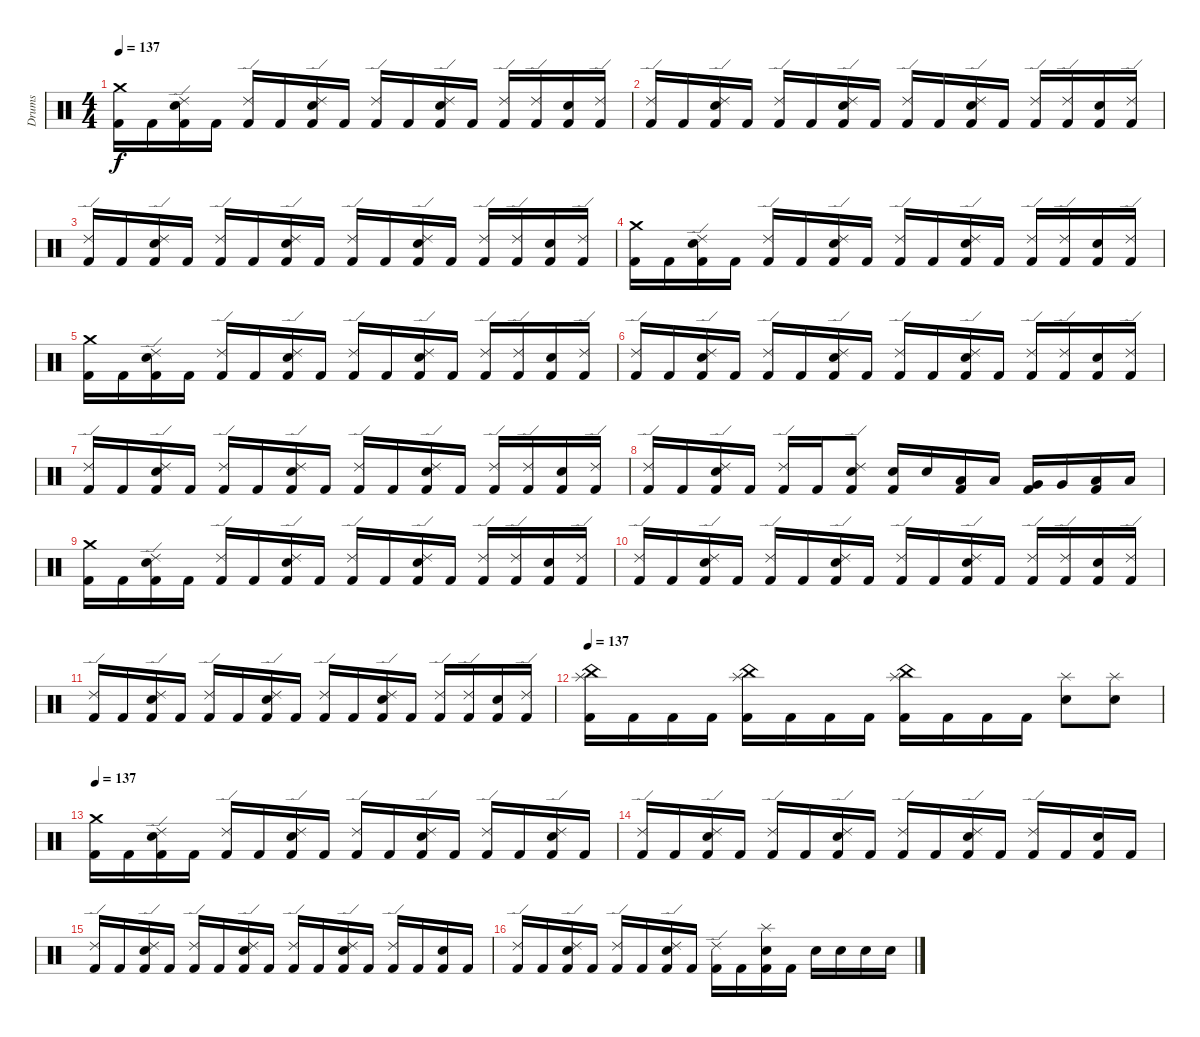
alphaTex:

\track ("Drums" "Drums") {instrument percussion}
\staff {score}
\articulation defaults
\ts (4 4)
\tempo 137
\clef neutral
\ks c
("Crash medium (hit)" "Kick (hit) 2").16{dy f} "Kick (hit) 2".16 ("Ride (edge) 2" "Snare (hit) 2" "Kick (hit) 2").16 "Kick (hit) 2".16 ("Ride (edge) 2" "Kick (hit) 2").16 "Kick (hit) 2".16 ("Ride (edge) 2" "Snare (hit) 2" "Kick (hit) 2").16 "Kick (hit) 2".16 ("Ride (edge) 2" "Kick (hit) 2").16 "Kick (hit) 2".16 ("Ride (edge) 2" "Snare (hit) 2" "Kick (hit) 2").16 "Kick (hit) 2".16 ("Ride (edge) 2" "Kick (hit) 2").16 ("Ride (edge) 2" "Kick (hit) 2").16 ("Snare (hit) 2" "Kick (hit) 2").16 ("Ride (edge) 2" "Kick (hit) 2").16 |
("Ride (edge) 2" "Kick (hit) 2").16 "Kick (hit) 2".16 ("Ride (edge) 2" "Snare (hit) 2" "Kick (hit) 2").16 "Kick (hit) 2".16 ("Ride (edge) 2" "Kick (hit) 2").16 "Kick (hit) 2".16 ("Ride (edge) 2" "Snare (hit) 2" "Kick (hit) 2").16 "Kick (hit) 2".16 ("Ride (edge) 2" "Kick (hit) 2").16 "Kick (hit) 2".16 ("Ride (edge) 2" "Snare (hit) 2" "Kick (hit) 2").16 "Kick (hit) 2".16 ("Ride (edge) 2" "Kick (hit) 2").16 ("Ride (edge) 2" "Kick (hit) 2").16 ("Snare (hit) 2" "Kick (hit) 2").16 ("Ride (edge) 2" "Kick (hit) 2").16 |
("Ride (edge) 2" "Kick (hit) 2").16 "Kick (hit) 2".16 ("Ride (edge) 2" "Snare (hit) 2" "Kick (hit) 2").16 "Kick (hit) 2".16 ("Ride (edge) 2" "Kick (hit) 2").16 "Kick (hit) 2".16 ("Ride (edge) 2" "Snare (hit) 2" "Kick (hit) 2").16 "Kick (hit) 2".16 ("Ride (edge) 2" "Kick (hit) 2").16 "Kick (hit) 2".16 ("Ride (edge) 2" "Snare (hit) 2" "Kick (hit) 2").16 "Kick (hit) 2".16 ("Ride (edge) 2" "Kick (hit) 2").16 ("Ride (edge) 2" "Kick (hit) 2").16 ("Snare (hit) 2" "Kick (hit) 2").16 ("Ride (edge) 2" "Kick (hit) 2").16 |
("Crash medium (hit)" "Kick (hit) 2").16 "Kick (hit) 2".16 ("Ride (edge) 2" "Snare (hit) 2" "Kick (hit) 2").16 "Kick (hit) 2".16 ("Ride (edge) 2" "Kick (hit) 2").16 "Kick (hit) 2".16 ("Ride (edge) 2" "Snare (hit) 2" "Kick (hit) 2").16 "Kick (hit) 2".16 ("Ride (edge) 2" "Kick (hit) 2").16 "Kick (hit) 2".16 ("Ride (edge) 2" "Snare (hit) 2" "Kick (hit) 2").16 "Kick (hit) 2".16 ("Ride (edge) 2" "Kick (hit) 2").16 ("Ride (edge) 2" "Kick (hit) 2").16 ("Snare (hit) 2" "Kick (hit) 2").16 ("Ride (edge) 2" "Kick (hit) 2").16 |
("Crash medium (hit)" "Kick (hit) 2").16 "Kick (hit) 2".16 ("Ride (edge) 2" "Snare (hit) 2" "Kick (hit) 2").16 "Kick (hit) 2".16 ("Ride (edge) 2" "Kick (hit) 2").16 "Kick (hit) 2".16 ("Ride (edge) 2" "Snare (hit) 2" "Kick (hit) 2").16 "Kick (hit) 2".16 ("Ride (edge) 2" "Kick (hit) 2").16 "Kick (hit) 2".16 ("Ride (edge) 2" "Snare (hit) 2" "Kick (hit) 2").16 "Kick (hit) 2".16 ("Ride (edge) 2" "Kick (hit) 2").16 ("Ride (edge) 2" "Kick (hit) 2").16 ("Snare (hit) 2" "Kick (hit) 2").16 ("Ride (edge) 2" "Kick (hit) 2").16 |
("Ride (edge) 2" "Kick (hit) 2").16 "Kick (hit) 2".16 ("Ride (edge) 2" "Snare (hit) 2" "Kick (hit) 2").16 "Kick (hit) 2".16 ("Ride (edge) 2" "Kick (hit) 2").16 "Kick (hit) 2".16 ("Ride (edge) 2" "Snare (hit) 2" "Kick (hit) 2").16 "Kick (hit) 2".16 ("Ride (edge) 2" "Kick (hit) 2").16 "Kick (hit) 2".16 ("Ride (edge) 2" "Snare (hit) 2" "Kick (hit) 2").16 "Kick (hit) 2".16 ("Ride (edge) 2" "Kick (hit) 2").16 ("Ride (edge) 2" "Kick (hit) 2").16 ("Snare (hit) 2" "Kick (hit) 2").16 ("Ride (edge) 2" "Kick (hit) 2").16 |
("Ride (edge) 2" "Kick (hit) 2").16 "Kick (hit) 2".16 ("Ride (edge) 2" "Snare (hit) 2" "Kick (hit) 2").16 "Kick (hit) 2".16 ("Ride (edge) 2" "Kick (hit) 2").16 "Kick (hit) 2".16 ("Ride (edge) 2" "Snare (hit) 2" "Kick (hit) 2").16 "Kick (hit) 2".16 ("Ride (edge) 2" "Kick (hit) 2").16 "Kick (hit) 2".16 ("Ride (edge) 2" "Snare (hit) 2" "Kick (hit) 2").16 "Kick (hit) 2".16 ("Ride (edge) 2" "Kick (hit) 2").16 ("Ride (edge) 2" "Kick (hit) 2").16 ("Snare (hit) 2" "Kick (hit) 2").16 ("Ride (edge) 2" "Kick (hit) 2").16 |
("Ride (edge) 2" "Kick (hit) 2").16 "Kick (hit) 2".16 ("Ride (edge) 2" "Snare (hit) 2" "Kick (hit) 2").16 "Kick (hit) 2".16 ("Ride (edge) 2" "Kick (hit) 2").16 "Kick (hit) 2".16 ("Ride (edge) 2" "Snare (hit) 2" "Kick (hit) 2").8 ("Snare (hit) 2" "Kick (hit) 2").16 "Snare (hit) 2".16 ("Low Tom (hit)" "Kick (hit) 2").16 "Low Tom (hit)".16 ("Very Low Tom (hit)" "Kick (hit) 2").16 "Very Low Tom (hit)".16 ("Low Floor Tom (hit)" "Kick (hit) 2").16 "Low Floor Tom (hit)".16 |
("Crash medium (hit)" "Kick (hit) 2").16 "Kick (hit) 2".16 ("Ride (edge) 2" "Snare (hit) 2" "Kick (hit) 2").16 "Kick (hit) 2".16 ("Ride (edge) 2" "Kick (hit) 2").16 "Kick (hit) 2".16 ("Ride (edge) 2" "Snare (hit) 2" "Kick (hit) 2").16 "Kick (hit) 2".16 ("Ride (edge) 2" "Kick (hit) 2").16 "Kick (hit) 2".16 ("Ride (edge) 2" "Snare (hit) 2" "Kick (hit) 2").16 "Kick (hit) 2".16 ("Ride (edge) 2" "Kick (hit) 2").16 ("Ride (edge) 2" "Kick (hit) 2").16 ("Snare (hit) 2" "Kick (hit) 2").16 ("Ride (edge) 2" "Kick (hit) 2").16 |
("Ride (edge) 2" "Kick (hit) 2").16 "Kick (hit) 2".16 ("Ride (edge) 2" "Snare (hit) 2" "Kick (hit) 2").16 "Kick (hit) 2".16 ("Ride (edge) 2" "Kick (hit) 2").16 "Kick (hit) 2".16 ("Ride (edge) 2" "Snare (hit) 2" "Kick (hit) 2").16 "Kick (hit) 2".16 ("Ride (edge) 2" "Kick (hit) 2").16 "Kick (hit) 2".16 ("Ride (edge) 2" "Snare (hit) 2" "Kick (hit) 2").16 "Kick (hit) 2".16 ("Ride (edge) 2" "Kick (hit) 2").16 ("Ride (edge) 2" "Kick (hit) 2").16 ("Snare (hit) 2" "Kick (hit) 2").16 ("Ride (edge) 2" "Kick (hit) 2").16 |
("Ride (edge) 2" "Kick (hit) 2").16 "Kick (hit) 2".16 ("Ride (edge) 2" "Snare (hit) 2" "Kick (hit) 2").16 "Kick (hit) 2".16 ("Ride (edge) 2" "Kick (hit) 2").16 "Kick (hit) 2".16 ("Ride (edge) 2" "Snare (hit) 2" "Kick (hit) 2").16 "Kick (hit) 2".16 ("Ride (edge) 2" "Kick (hit) 2").16 "Kick (hit) 2".16 ("Ride (edge) 2" "Snare (hit) 2" "Kick (hit) 2").16 "Kick (hit) 2".16 ("Ride (edge) 2" "Kick (hit) 2").16 ("Ride (edge) 2" "Kick (hit) 2").16 ("Snare (hit) 2" "Kick (hit) 2").16 ("Ride (edge) 2" "Kick (hit) 2").16 |
\tempo 137
("China (hit)" "Splash (hit)" "Kick (hit) 2").16 "Kick (hit) 2".16 "Kick (hit) 2".16 "Kick (hit) 2".16 ("China (hit)" "Splash (hit)" "Kick (hit) 2").16 "Kick (hit) 2".16 "Kick (hit) 2".16 "Kick (hit) 2".16 ("China (hit)" "Splash (hit)" "Kick (hit) 2").16 "Kick (hit) 2".16 "Kick (hit) 2".16 "Kick (hit) 2".16 ("Splash (hit)" "Snare (hit) 2").8 ("Splash (hit)" "Snare (hit) 2").8 |
\tempo 137
("Crash medium (hit)" "Kick (hit) 2").16 "Kick (hit) 2".16 ("Ride (edge) 2" "Snare (hit) 2" "Kick (hit) 2").16 "Kick (hit) 2".16 ("Ride (edge) 2" "Kick (hit) 2").16 "Kick (hit) 2".16 ("Ride (edge) 2" "Snare (hit) 2" "Kick (hit) 2").16 "Kick (hit) 2".16 ("Ride (edge) 2" "Kick (hit) 2").16 "Kick (hit) 2".16 ("Ride (edge) 2" "Snare (hit) 2" "Kick (hit) 2").16 "Kick (hit) 2".16 ("Ride (edge) 2" "Kick (hit) 2").16 "Kick (hit) 2".16 ("Ride (edge) 2" "Snare (hit) 2" "Kick (hit) 2").16 "Kick (hit) 2".16 |
("Ride (edge) 2" "Kick (hit) 2").16 "Kick (hit) 2".16 ("Ride (edge) 2" "Snare (hit) 2" "Kick (hit) 2").16 "Kick (hit) 2".16 ("Ride (edge) 2" "Kick (hit) 2").16 "Kick (hit) 2".16 ("Ride (edge) 2" "Snare (hit) 2" "Kick (hit) 2").16 "Kick (hit) 2".16 ("Ride (edge) 2" "Kick (hit) 2").16 "Kick (hit) 2".16 ("Ride (edge) 2" "Snare (hit) 2" "Kick (hit) 2").16 "Kick (hit) 2".16 ("Ride (edge) 2" "Kick (hit) 2").16 "Kick (hit) 2".16 ("Snare (hit) 2" "Kick (hit) 2").16 "Kick (hit) 2".16 |
("Ride (edge) 2" "Kick (hit) 2").16 "Kick (hit) 2".16 ("Ride (edge) 2" "Snare (hit) 2" "Kick (hit) 2").16 "Kick (hit) 2".16 ("Ride (edge) 2" "Kick (hit) 2").16 "Kick (hit) 2".16 ("Ride (edge) 2" "Snare (hit) 2" "Kick (hit) 2").16 "Kick (hit) 2".16 ("Ride (edge) 2" "Kick (hit) 2").16 "Kick (hit) 2".16 ("Ride (edge) 2" "Snare (hit) 2" "Kick (hit) 2").16 "Kick (hit) 2".16 ("Ride (edge) 2" "Kick (hit) 2").16 "Kick (hit) 2".16 ("Snare (hit) 2" "Kick (hit) 2").16 "Kick (hit) 2".16 |
("Ride (edge) 2" "Kick (hit) 2").16 "Kick (hit) 2".16 ("Ride (edge) 2" "Snare (hit) 2" "Kick (hit) 2").16 "Kick (hit) 2".16 ("Ride (edge) 2" "Kick (hit) 2").16 "Kick (hit) 2".16 ("Ride (edge) 2" "Snare (hit) 2" "Kick (hit) 2").16 "Kick (hit) 2".16 ("Ride (edge) 2" "Kick (hit) 2").16 "Kick (hit) 2".16 ("Splash (hit)" "Snare (hit) 2" "Kick (hit) 2").16 "Kick (hit) 2".16 "Snare (hit) 2".16 "Snare (hit) 2".16 "Snare (hit) 2".16 "Snare (hit) 2".16
